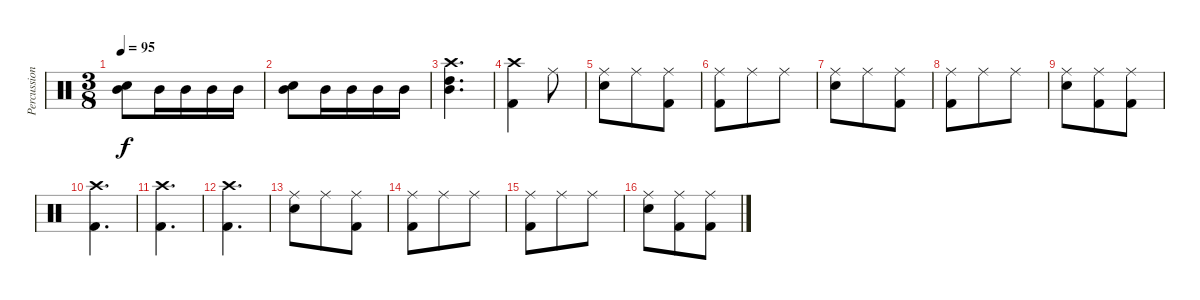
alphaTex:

\track ("Percussion" "Percussion") {instrument percussion}
\staff {score}
\articulation defaults
\ts (3 8)
\tempo 95
\clef neutral
\ks c
("Snare (hit) 2" "Mid Tom (hit)").8{dy f} "Mid Tom (hit)".16 "Mid Tom (hit)".16 "Mid Tom (hit)".16 "Mid Tom (hit)".16 |
("Snare (hit) 2" "Mid Tom (hit)").8 "Mid Tom (hit)".16 "Mid Tom (hit)".16 "Mid Tom (hit)".16 "Mid Tom (hit)".16 |
("Crash high (hit)" "High Tom (hit)" "Mid Tom (hit)").4{d} |
("Crash high (hit)" "Kick (hit) 2").4 "Ride (middle)".8 |
("Ride (middle)" "Snare (hit) 2").8 "Ride (middle)".8 ("Ride (middle)" "Kick (hit) 2").8 |
("Ride (middle)" "Kick (hit) 2").8 "Ride (middle)".8 "Ride (middle)".8 |
("Ride (middle)" "Snare (hit) 2").8 "Ride (middle)".8 ("Ride (middle)" "Kick (hit) 2").8 |
("Ride (middle)" "Kick (hit) 2").8 "Ride (middle)".8 "Ride (middle)".8 |
("Ride (middle)" "Snare (hit) 2").8 ("Ride (middle)" "Kick (hit) 2").8 ("Ride (middle)" "Kick (hit) 2").8 |
("Crash high (hit)" "Kick (hit) 2").4{d} |
("Crash high (hit)" "Kick (hit) 2").4{d} |
("Crash high (hit)" "Kick (hit) 2").4{d} |
("Ride (middle)" "Snare (hit) 2").8 "Ride (middle)".8 ("Ride (middle)" "Kick (hit) 2").8 |
("Ride (middle)" "Kick (hit) 2").8 "Ride (middle)".8 "Ride (middle)".8 |
("Ride (middle)" "Kick (hit) 2").8 "Ride (middle)".8 "Ride (middle)".8 |
("Ride (middle)" "Snare (hit) 2").8 ("Ride (middle)" "Kick (hit) 2").8 ("Ride (middle)" "Kick (hit) 2").8
